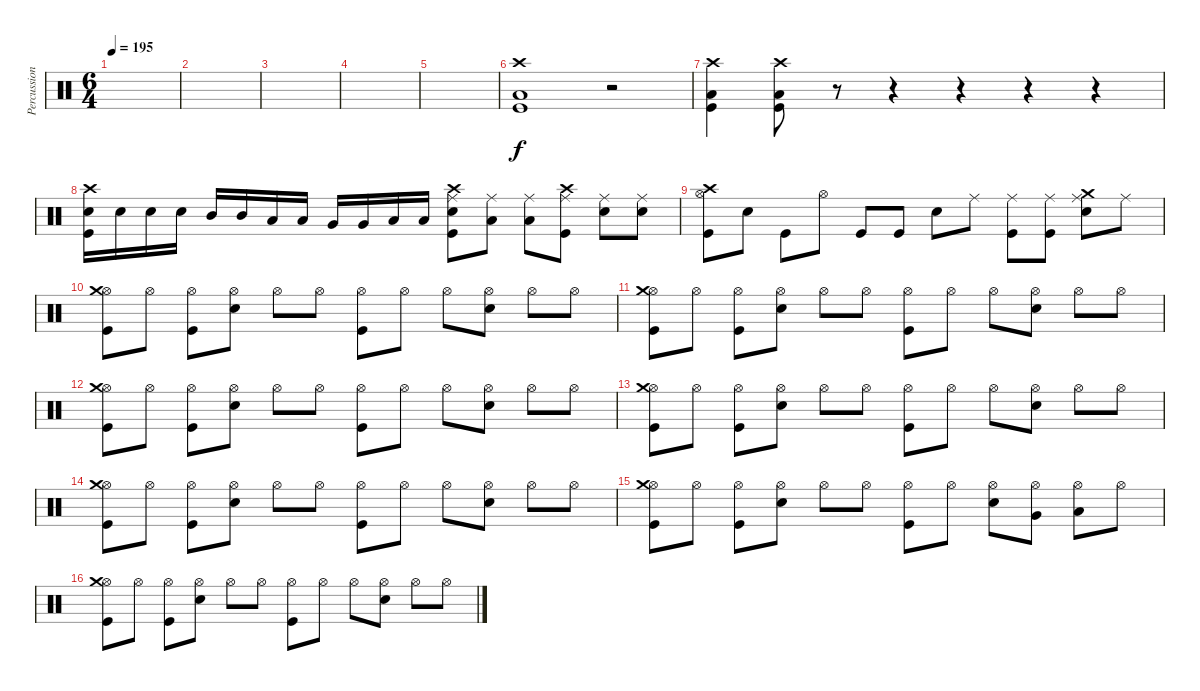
\track ("Percussion" "Percussion") {instrument percussion}
\staff {score}
\articulation defaults
\ts (6 4)
\tempo 195
\clef neutral
\ks c
|
|
|
|
|
("Crash high (hit)" "Low Floor Tom (hit)" "Kick (hit)").1 r.2 |
("Crash high (hit)" "Low Floor Tom (hit)" "Kick (hit)").4 ("Crash high (hit)" "Low Floor Tom (hit)" "Kick (hit)").8 r.8 r.4 r.4 r.4 r.4 |
("Crash high (hit)" "Electric Snare (hit)" "Kick (hit)").16 "Electric Snare (hit)".16 "Electric Snare (hit)".16 "Electric Snare (hit)".16 "Mid Tom (hit)".16 "Mid Tom (hit)".16 "Low Tom (hit)".16 "Low Tom (hit)".16 "Very Low Tom (hit)".16 "Very Low Tom (hit)".16 "Low Floor Tom (hit)".16 "Low Floor Tom (hit)".16 ("Crash high (hit)" "Electric Snare (hit)" "Ride (middle)" "Kick (hit)").8 ("Low Floor Tom (hit)" "Ride (middle)").8 ("Low Floor Tom (hit)" "Ride (middle)").8 ("Crash high (hit)" "Ride (middle)" "Kick (hit)").8 ("Electric Snare (hit)" "Ride (middle)").8 ("Electric Snare (hit)" "Ride (middle)").8 |
("Crash high (hit)" "Hi-Hat (open)" "Kick (hit)").8 "Electric Snare (hit)".8 "Kick (hit)".8 "Hi-Hat (open)".8 "Kick (hit)".8 "Kick (hit)".8 "Electric Snare (hit)".8 "Ride (middle)".8 ("Ride (middle)" "Kick (hit)").8 ("Ride (middle)" "Kick (hit)").8 ("Crash medium (hit)" "Ride (middle)" "Electric Snare (hit)").8 "Ride (middle)".8 |
("Hi-Hat (open)" "Crash medium (hit)" "Kick (hit)").8 "Hi-Hat (open)".8 ("Hi-Hat (open)" "Kick (hit)").8 ("Hi-Hat (open)" "Electric Snare (hit)").8 "Hi-Hat (open)".8 "Hi-Hat (open)".8 ("Hi-Hat (open)" "Kick (hit)").8 "Hi-Hat (open)".8 "Hi-Hat (open)".8 ("Hi-Hat (open)" "Electric Snare (hit)").8 "Hi-Hat (open)".8 "Hi-Hat (open)".8 |
("Hi-Hat (open)" "Crash medium (hit)" "Kick (hit)").8 "Hi-Hat (open)".8 ("Hi-Hat (open)" "Kick (hit)").8 ("Hi-Hat (open)" "Electric Snare (hit)").8 "Hi-Hat (open)".8 "Hi-Hat (open)".8 ("Hi-Hat (open)" "Kick (hit)").8 "Hi-Hat (open)".8 "Hi-Hat (open)".8 ("Hi-Hat (open)" "Electric Snare (hit)").8 "Hi-Hat (open)".8 "Hi-Hat (open)".8 |
("Hi-Hat (open)" "Crash medium (hit)" "Kick (hit)").8 "Hi-Hat (open)".8 ("Hi-Hat (open)" "Kick (hit)").8 ("Hi-Hat (open)" "Electric Snare (hit)").8 "Hi-Hat (open)".8 "Hi-Hat (open)".8 ("Hi-Hat (open)" "Kick (hit)").8 "Hi-Hat (open)".8 "Hi-Hat (open)".8 ("Hi-Hat (open)" "Electric Snare (hit)").8 "Hi-Hat (open)".8 "Hi-Hat (open)".8 |
("Hi-Hat (open)" "Crash medium (hit)" "Kick (hit)").8 "Hi-Hat (open)".8 ("Hi-Hat (open)" "Kick (hit)").8 ("Hi-Hat (open)" "Electric Snare (hit)").8 "Hi-Hat (open)".8 "Hi-Hat (open)".8 ("Hi-Hat (open)" "Kick (hit)").8 "Hi-Hat (open)".8 "Hi-Hat (open)".8 ("Hi-Hat (open)" "Electric Snare (hit)").8 "Hi-Hat (open)".8 "Hi-Hat (open)".8 |
("Hi-Hat (open)" "Crash medium (hit)" "Kick (hit)").8 "Hi-Hat (open)".8 ("Hi-Hat (open)" "Kick (hit)").8 ("Hi-Hat (open)" "Electric Snare (hit)").8 "Hi-Hat (open)".8 "Hi-Hat (open)".8 ("Hi-Hat (open)" "Kick (hit)").8 "Hi-Hat (open)".8 "Hi-Hat (open)".8 ("Hi-Hat (open)" "Electric Snare (hit)").8 "Hi-Hat (open)".8 "Hi-Hat (open)".8 |
("Hi-Hat (open)" "Crash medium (hit)" "Kick (hit)").8 "Hi-Hat (open)".8 ("Hi-Hat (open)" "Kick (hit)").8 ("Hi-Hat (open)" "Electric Snare (hit)").8 "Hi-Hat (open)".8 "Hi-Hat (open)".8 ("Hi-Hat (open)" "Kick (hit)").8 "Hi-Hat (open)".8 ("Hi-Hat (open)" "Electric Snare (hit)").8 ("Hi-Hat (open)" "Very Low Tom (hit)").8 ("Hi-Hat (open)" "Low Floor Tom (hit)").8 "Hi-Hat (open)".8 |
("Hi-Hat (open)" "Crash medium (hit)" "Kick (hit)").8 "Hi-Hat (open)".8 ("Hi-Hat (open)" "Kick (hit)").8 ("Hi-Hat (open)" "Electric Snare (hit)").8 "Hi-Hat (open)".8 "Hi-Hat (open)".8 ("Hi-Hat (open)" "Kick (hit)").8 "Hi-Hat (open)".8 "Hi-Hat (open)".8 ("Hi-Hat (open)" "Electric Snare (hit)").8 "Hi-Hat (open)".8 "Hi-Hat (open)".8
